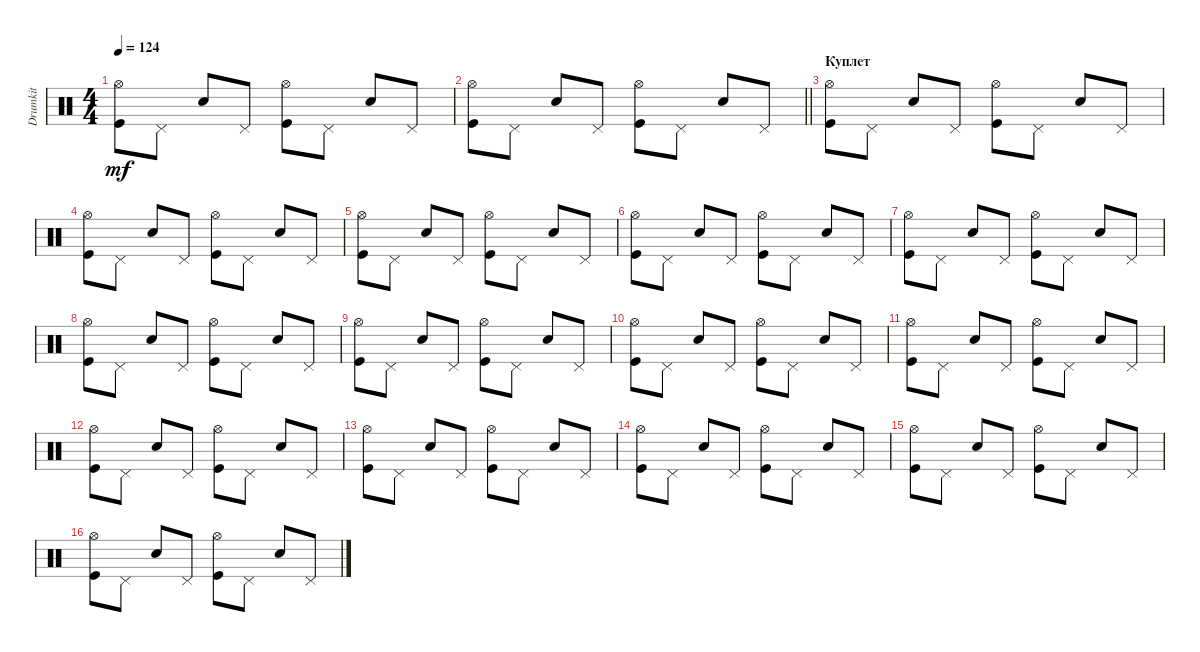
\track ("Drumkit" "Drumkit") {instrument percussion}
\staff {score}
\articulation defaults
\ts (4 4)
\tempo 124
\clef neutral
\ks c
("Kick (hit)" "Hi-Hat (open)").8{dy mf} "Pedal Hi-Hat (hit)".8 "Snare (hit) 2".8 "Pedal Hi-Hat (hit)".8 ("Kick (hit)" "Hi-Hat (open)").8 "Pedal Hi-Hat (hit)".8 "Snare (hit) 2".8 "Pedal Hi-Hat (hit)".8 |
\barLineRight lightlight
("Kick (hit)" "Hi-Hat (open)").8 "Pedal Hi-Hat (hit)".8 "Snare (hit) 2".8 "Pedal Hi-Hat (hit)".8 ("Kick (hit)" "Hi-Hat (open)").8 "Pedal Hi-Hat (hit)".8 "Snare (hit) 2".8 "Pedal Hi-Hat (hit)".8 |
\section ("" "Куплет")
("Kick (hit)" "Hi-Hat (open)").8 "Pedal Hi-Hat (hit)".8 "Snare (hit) 2".8 "Pedal Hi-Hat (hit)".8 ("Kick (hit)" "Hi-Hat (open)").8 "Pedal Hi-Hat (hit)".8 "Snare (hit) 2".8 "Pedal Hi-Hat (hit)".8 |
("Kick (hit)" "Hi-Hat (open)").8 "Pedal Hi-Hat (hit)".8 "Snare (hit) 2".8 "Pedal Hi-Hat (hit)".8 ("Kick (hit)" "Hi-Hat (open)").8 "Pedal Hi-Hat (hit)".8 "Snare (hit) 2".8 "Pedal Hi-Hat (hit)".8 |
("Kick (hit)" "Hi-Hat (open)").8 "Pedal Hi-Hat (hit)".8 "Snare (hit) 2".8 "Pedal Hi-Hat (hit)".8 ("Kick (hit)" "Hi-Hat (open)").8 "Pedal Hi-Hat (hit)".8 "Snare (hit) 2".8 "Pedal Hi-Hat (hit)".8 |
("Kick (hit)" "Hi-Hat (open)").8 "Pedal Hi-Hat (hit)".8 "Snare (hit) 2".8 "Pedal Hi-Hat (hit)".8 ("Kick (hit)" "Hi-Hat (open)").8 "Pedal Hi-Hat (hit)".8 "Snare (hit) 2".8 "Pedal Hi-Hat (hit)".8 |
("Kick (hit)" "Hi-Hat (open)").8 "Pedal Hi-Hat (hit)".8 "Snare (hit) 2".8 "Pedal Hi-Hat (hit)".8 ("Kick (hit)" "Hi-Hat (open)").8 "Pedal Hi-Hat (hit)".8 "Snare (hit) 2".8 "Pedal Hi-Hat (hit)".8 |
("Kick (hit)" "Hi-Hat (open)").8 "Pedal Hi-Hat (hit)".8 "Snare (hit) 2".8 "Pedal Hi-Hat (hit)".8 ("Kick (hit)" "Hi-Hat (open)").8 "Pedal Hi-Hat (hit)".8 "Snare (hit) 2".8 "Pedal Hi-Hat (hit)".8 |
("Kick (hit)" "Hi-Hat (open)").8 "Pedal Hi-Hat (hit)".8 "Snare (hit) 2".8 "Pedal Hi-Hat (hit)".8 ("Kick (hit)" "Hi-Hat (open)").8 "Pedal Hi-Hat (hit)".8 "Snare (hit) 2".8 "Pedal Hi-Hat (hit)".8 |
("Kick (hit)" "Hi-Hat (open)").8 "Pedal Hi-Hat (hit)".8 "Snare (hit) 2".8 "Pedal Hi-Hat (hit)".8 ("Kick (hit)" "Hi-Hat (open)").8 "Pedal Hi-Hat (hit)".8 "Snare (hit) 2".8 "Pedal Hi-Hat (hit)".8 |
("Kick (hit)" "Hi-Hat (open)").8 "Pedal Hi-Hat (hit)".8 "Snare (hit) 2".8 "Pedal Hi-Hat (hit)".8 ("Kick (hit)" "Hi-Hat (open)").8 "Pedal Hi-Hat (hit)".8 "Snare (hit) 2".8 "Pedal Hi-Hat (hit)".8 |
("Kick (hit)" "Hi-Hat (open)").8 "Pedal Hi-Hat (hit)".8 "Snare (hit) 2".8 "Pedal Hi-Hat (hit)".8 ("Kick (hit)" "Hi-Hat (open)").8 "Pedal Hi-Hat (hit)".8 "Snare (hit) 2".8 "Pedal Hi-Hat (hit)".8 |
("Kick (hit)" "Hi-Hat (open)").8 "Pedal Hi-Hat (hit)".8 "Snare (hit) 2".8 "Pedal Hi-Hat (hit)".8 ("Kick (hit)" "Hi-Hat (open)").8 "Pedal Hi-Hat (hit)".8 "Snare (hit) 2".8 "Pedal Hi-Hat (hit)".8 |
("Kick (hit)" "Hi-Hat (open)").8 "Pedal Hi-Hat (hit)".8 "Snare (hit) 2".8 "Pedal Hi-Hat (hit)".8 ("Kick (hit)" "Hi-Hat (open)").8 "Pedal Hi-Hat (hit)".8 "Snare (hit) 2".8 "Pedal Hi-Hat (hit)".8 |
("Kick (hit)" "Hi-Hat (open)").8 "Pedal Hi-Hat (hit)".8 "Snare (hit) 2".8 "Pedal Hi-Hat (hit)".8 ("Kick (hit)" "Hi-Hat (open)").8 "Pedal Hi-Hat (hit)".8 "Snare (hit) 2".8 "Pedal Hi-Hat (hit)".8 |
("Kick (hit)" "Hi-Hat (open)").8 "Pedal Hi-Hat (hit)".8 "Snare (hit) 2".8 "Pedal Hi-Hat (hit)".8 ("Kick (hit)" "Hi-Hat (open)").8 "Pedal Hi-Hat (hit)".8 "Snare (hit) 2".8 "Pedal Hi-Hat (hit)".8
